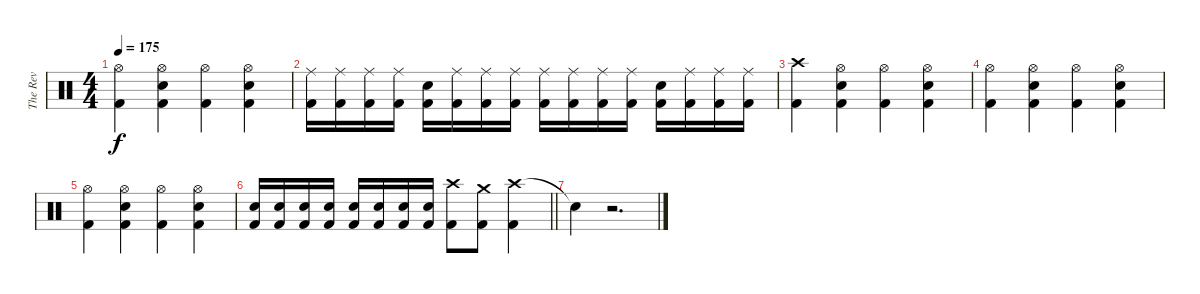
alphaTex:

\track ("The Rev" "The Rev") {instrument percussion}
\staff {score}
\articulation defaults
\ts (4 4)
\tempo 175
\clef neutral
\ks c
("Hi-Hat (open)" "Kick (hit) 2").4{dy f} ("Hi-Hat (open)" "Snare (hit) 2" "Kick (hit) 2").4 ("Hi-Hat (open)" "Kick (hit) 2").4 ("Hi-Hat (open)" "Snare (hit) 2" "Kick (hit) 2").4 |
("Ride (middle)" "Kick (hit) 2").16 ("Ride (middle)" "Kick (hit) 2").16 ("Ride (middle)" "Kick (hit) 2").16 ("Ride (middle)" "Kick (hit) 2").16 ("Snare (hit) 2" "Kick (hit) 2").16 ("Ride (middle)" "Kick (hit) 2").16 ("Ride (middle)" "Kick (hit) 2").16 ("Ride (middle)" "Kick (hit) 2").16 ("Ride (middle)" "Kick (hit) 2").16 ("Ride (middle)" "Kick (hit) 2").16 ("Ride (middle)" "Kick (hit) 2").16 ("Ride (middle)" "Kick (hit) 2").16 ("Snare (hit) 2" "Kick (hit) 2").16 ("Ride (middle)" "Kick (hit) 2").16 ("Ride (middle)" "Kick (hit) 2").16 ("Ride (middle)" "Kick (hit) 2").16 |
("Crash high (hit)" "Kick (hit) 2").4 ("Hi-Hat (open)" "Snare (hit) 2" "Kick (hit) 2").4 ("Hi-Hat (open)" "Kick (hit) 2").4 ("Hi-Hat (open)" "Snare (hit) 2" "Kick (hit) 2").4 |
("Hi-Hat (open)" "Kick (hit) 2").4 ("Hi-Hat (open)" "Snare (hit) 2" "Kick (hit) 2").4 ("Hi-Hat (open)" "Kick (hit) 2").4 ("Hi-Hat (open)" "Snare (hit) 2" "Kick (hit) 2").4 |
("Hi-Hat (open)" "Kick (hit) 2").4 ("Hi-Hat (open)" "Snare (hit) 2" "Kick (hit) 2").4 ("Hi-Hat (open)" "Kick (hit) 2").4 ("Hi-Hat (open)" "Snare (hit) 2" "Kick (hit) 2").4 |
\barLineRight lightlight
("Snare (hit) 2" "Kick (hit) 2").16 ("Snare (hit) 2" "Kick (hit) 2").16 ("Snare (hit) 2" "Kick (hit) 2").16 ("Snare (hit) 2" "Kick (hit) 2").16 ("Snare (hit) 2" "Kick (hit) 2").16 ("Snare (hit) 2" "Kick (hit) 2").16 ("Snare (hit) 2" "Kick (hit) 2").16 ("Snare (hit) 2" "Kick (hit) 2").16 ("Crash high (hit)" "Kick (hit) 2").8 ("Crash medium (hit)" "Kick (hit) 2").8 ("Crash high (hit)" "Kick (hit) 2").4 |
"Snare (hit)"{t}.4 r.2{d}
